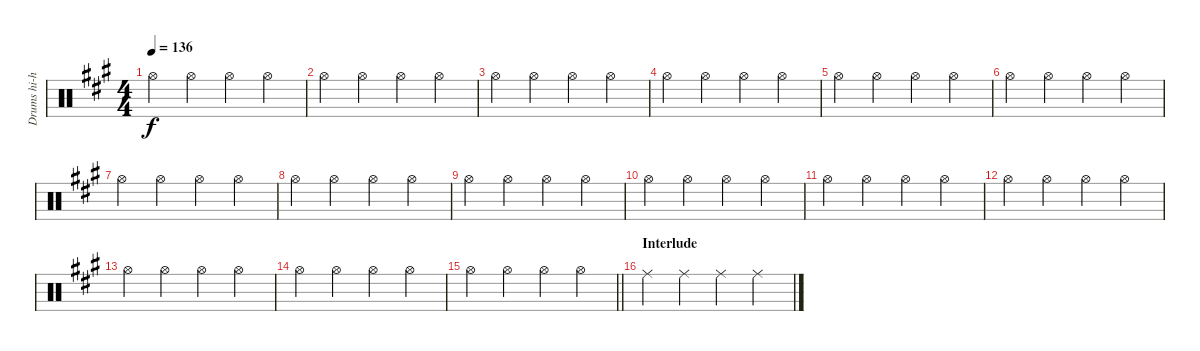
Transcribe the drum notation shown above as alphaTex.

\track ("Drums hi-hat" "Drums hi-h") {instrument percussion}
\staff {score}
\articulation defaults
\ts (4 4)
\tempo 136
\clef neutral
\ks a "Hi-Hat (open)".4{dy f} "Hi-Hat (open)".4 "Hi-Hat (open)".4 "Hi-Hat (open)".4
|
"Hi-Hat (open)".4 "Hi-Hat (open)".4 "Hi-Hat (open)".4 "Hi-Hat (open)".4 |
"Hi-Hat (open)".4 "Hi-Hat (open)".4 "Hi-Hat (open)".4 "Hi-Hat (open)".4 |
"Hi-Hat (open)".4 "Hi-Hat (open)".4 "Hi-Hat (open)".4 "Hi-Hat (open)".4 |
"Hi-Hat (open)".4 "Hi-Hat (open)".4 "Hi-Hat (open)".4 "Hi-Hat (open)".4 |
"Hi-Hat (open)".4 "Hi-Hat (open)".4 "Hi-Hat (open)".4 "Hi-Hat (open)".4 |
"Hi-Hat (open)".4 "Hi-Hat (open)".4 "Hi-Hat (open)".4 "Hi-Hat (open)".4 |
"Hi-Hat (open)".4 "Hi-Hat (open)".4 "Hi-Hat (open)".4 "Hi-Hat (open)".4 |
"Hi-Hat (open)".4 "Hi-Hat (open)".4 "Hi-Hat (open)".4 "Hi-Hat (open)".4 |
"Hi-Hat (open)".4 "Hi-Hat (open)".4 "Hi-Hat (open)".4 "Hi-Hat (open)".4 |
"Hi-Hat (open)".4 "Hi-Hat (open)".4 "Hi-Hat (open)".4 "Hi-Hat (open)".4 |
"Hi-Hat (open)".4 "Hi-Hat (open)".4 "Hi-Hat (open)".4 "Hi-Hat (open)".4 |
"Hi-Hat (open)".4 "Hi-Hat (open)".4 "Hi-Hat (open)".4 "Hi-Hat (open)".4 |
"Hi-Hat (open)".4 "Hi-Hat (open)".4 "Hi-Hat (open)".4 "Hi-Hat (open)".4 |
\barLineRight lightlight "Hi-Hat (open)".4 "Hi-Hat (open)".4 "Hi-Hat (open)".4 "Hi-Hat (open)".4
|
\section ("" "Interlude")
"Ride (middle)".4 "Ride (middle)".4 "Ride (middle)".4 "Ride (middle)".4
